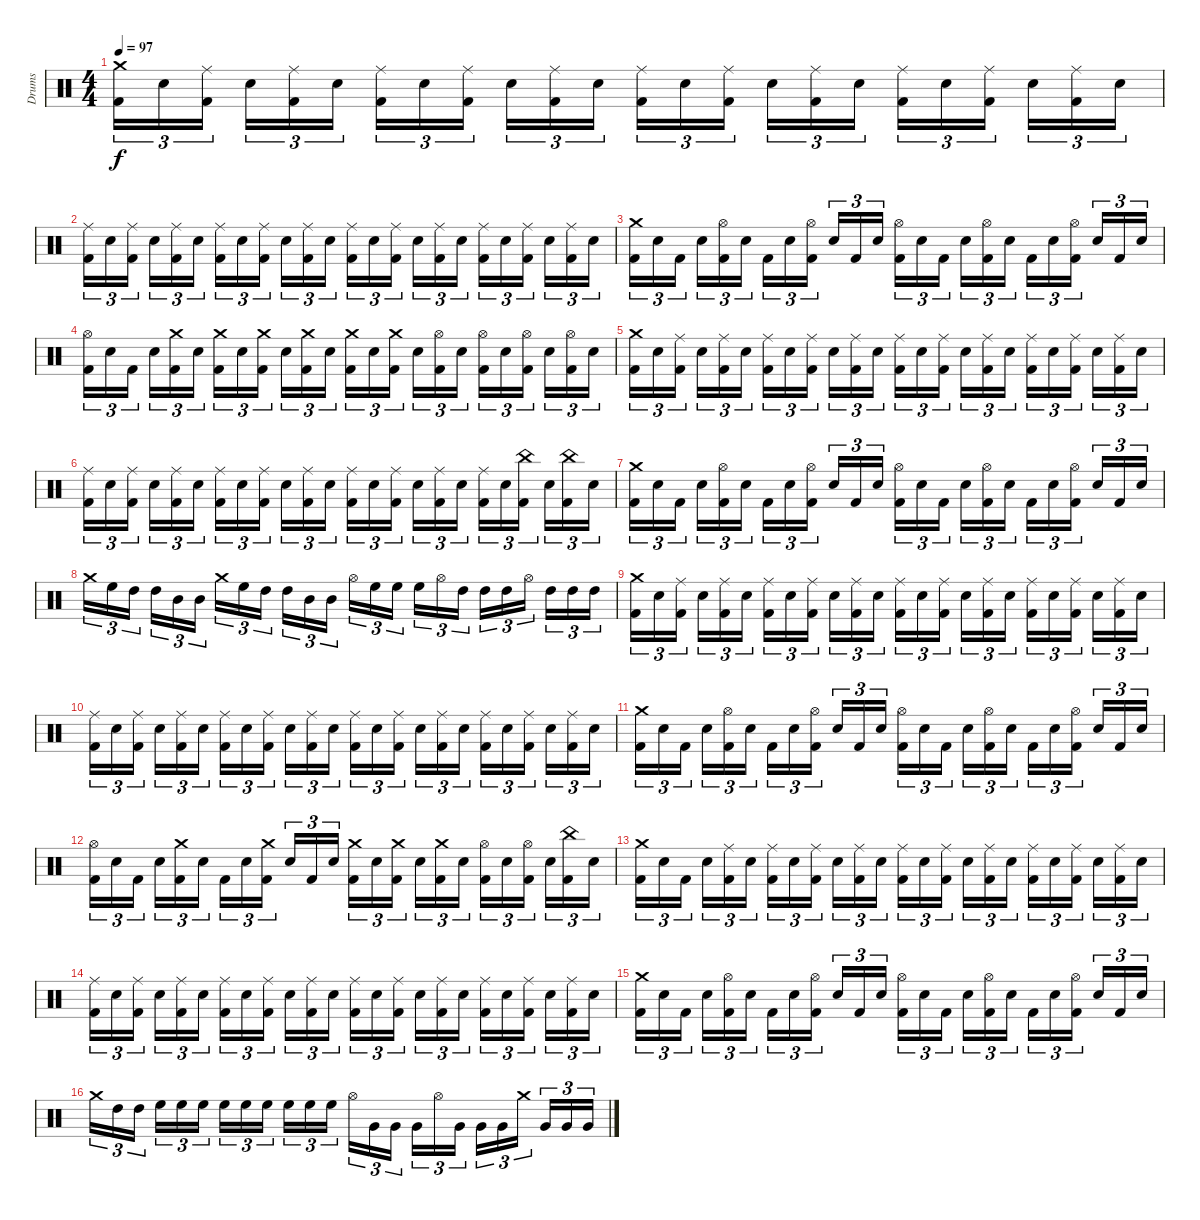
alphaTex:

\track ("Drums" "Drums") {instrument percussion}
\staff {score}
\articulation defaults
\ts (4 4)
\tempo 97
\clef neutral
\ks c
("Crash medium (hit)" "Kick (hit) 2").16{tu (3 2) dy f} "Snare (hit) 2".16{tu (3 2)} ("Ride (middle)" "Kick (hit) 2").16{tu (3 2)} "Snare (hit) 2".16{tu (3 2)} ("Ride (middle)" "Kick (hit) 2").16{tu (3 2)} "Snare (hit) 2".16{tu (3 2)} ("Ride (middle)" "Kick (hit) 2").16{tu (3 2)} "Snare (hit) 2".16{tu (3 2)} ("Ride (middle)" "Kick (hit) 2").16{tu (3 2)} "Snare (hit) 2".16{tu (3 2)} ("Ride (middle)" "Kick (hit) 2").16{tu (3 2)} "Snare (hit) 2".16{tu (3 2)} ("Ride (middle)" "Kick (hit) 2").16{tu (3 2)} "Snare (hit) 2".16{tu (3 2)} ("Ride (middle)" "Kick (hit) 2").16{tu (3 2)} "Snare (hit) 2".16{tu (3 2)} ("Ride (middle)" "Kick (hit) 2").16{tu (3 2)} "Snare (hit) 2".16{tu (3 2)} ("Ride (middle)" "Kick (hit) 2").16{tu (3 2)} "Snare (hit) 2".16{tu (3 2)} ("Ride (middle)" "Kick (hit) 2").16{tu (3 2)} "Snare (hit) 2".16{tu (3 2)} ("Ride (middle)" "Kick (hit) 2").16{tu (3 2)} "Snare (hit) 2".16{tu (3 2)} |
("Ride (middle)" "Kick (hit) 2").16{tu (3 2)} "Snare (hit) 2".16{tu (3 2)} ("Ride (middle)" "Kick (hit) 2").16{tu (3 2)} "Snare (hit) 2".16{tu (3 2)} ("Ride (middle)" "Kick (hit) 2").16{tu (3 2)} "Snare (hit) 2".16{tu (3 2)} ("Ride (middle)" "Kick (hit) 2").16{tu (3 2)} "Snare (hit) 2".16{tu (3 2)} ("Ride (middle)" "Kick (hit) 2").16{tu (3 2)} "Snare (hit) 2".16{tu (3 2)} ("Ride (middle)" "Kick (hit) 2").16{tu (3 2)} "Snare (hit) 2".16{tu (3 2)} ("Ride (middle)" "Kick (hit) 2").16{tu (3 2)} "Snare (hit) 2".16{tu (3 2)} ("Ride (middle)" "Kick (hit) 2").16{tu (3 2)} "Snare (hit) 2".16{tu (3 2)} ("Ride (middle)" "Kick (hit) 2").16{tu (3 2)} "Snare (hit) 2".16{tu (3 2)} ("Ride (middle)" "Kick (hit) 2").16{tu (3 2)} "Snare (hit) 2".16{tu (3 2)} ("Ride (middle)" "Kick (hit) 2").16{tu (3 2)} "Snare (hit) 2".16{tu (3 2)} ("Ride (middle)" "Kick (hit) 2").16{tu (3 2)} "Snare (hit) 2".16{tu (3 2)} |
("Crash medium (hit)" "Kick (hit) 2").16{tu (3 2)} "Snare (hit) 2".16{tu (3 2)} "Kick (hit) 2".16{tu (3 2)} "Snare (hit) 2".16{tu (3 2)} ("Hi-Hat (open)" "Kick (hit) 2").16{tu (3 2)} "Snare (hit) 2".16{tu (3 2)} "Kick (hit) 2".16{tu (3 2)} "Snare (hit) 2".16{tu (3 2)} ("Hi-Hat (open)" "Kick (hit) 2").16{tu (3 2)} "Snare (hit) 2".16{tu (3 2)} "Kick (hit) 2".16{tu (3 2)} "Snare (hit) 2".16{tu (3 2)} ("Hi-Hat (open)" "Kick (hit) 2").16{tu (3 2)} "Snare (hit) 2".16{tu (3 2)} "Kick (hit) 2".16{tu (3 2)} "Snare (hit) 2".16{tu (3 2)} ("Hi-Hat (open)" "Kick (hit) 2").16{tu (3 2)} "Snare (hit) 2".16{tu (3 2)} "Kick (hit) 2".16{tu (3 2)} "Snare (hit) 2".16{tu (3 2)} ("Hi-Hat (open)" "Kick (hit) 2").16{tu (3 2)} "Snare (hit) 2".16{tu (3 2)} "Kick (hit) 2".16{tu (3 2)} "Snare (hit) 2".16{tu (3 2)} |
("Hi-Hat (open)" "Kick (hit) 2").16{tu (3 2)} "Snare (hit) 2".16{tu (3 2)} "Kick (hit) 2".16{tu (3 2)} "Snare (hit) 2".16{tu (3 2)} ("Crash medium (hit)" "Kick (hit) 2").16{tu (3 2)} "Snare (hit) 2".16{tu (3 2)} ("Crash medium (hit)" "Kick (hit) 2").16{tu (3 2)} "Snare (hit) 2".16{tu (3 2)} ("Crash medium (hit)" "Kick (hit) 2").16{tu (3 2)} "Snare (hit) 2".16{tu (3 2)} ("Crash medium (hit)" "Kick (hit) 2").16{tu (3 2)} "Snare (hit) 2".16{tu (3 2)} ("Crash medium (hit)" "Kick (hit) 2").16{tu (3 2)} "Snare (hit) 2".16{tu (3 2)} ("Crash medium (hit)" "Kick (hit) 2").16{tu (3 2)} "Snare (hit) 2".16{tu (3 2)} ("Hi-Hat (open)" "Kick (hit) 2").16{tu (3 2)} "Snare (hit) 2".16{tu (3 2)} ("Hi-Hat (open)" "Kick (hit) 2").16{tu (3 2)} "Snare (hit) 2".16{tu (3 2)} ("Hi-Hat (open)" "Kick (hit) 2").16{tu (3 2)} "Snare (hit) 2".16{tu (3 2)} ("Hi-Hat (open)" "Kick (hit) 2").16{tu (3 2)} "Snare (hit) 2".16{tu (3 2)} |
("Crash medium (hit)" "Kick (hit) 2").16{tu (3 2)} "Snare (hit) 2".16{tu (3 2)} ("Ride (middle)" "Kick (hit) 2").16{tu (3 2)} "Snare (hit) 2".16{tu (3 2)} ("Ride (middle)" "Kick (hit) 2").16{tu (3 2)} "Snare (hit) 2".16{tu (3 2)} ("Ride (middle)" "Kick (hit) 2").16{tu (3 2)} "Snare (hit) 2".16{tu (3 2)} ("Ride (middle)" "Kick (hit) 2").16{tu (3 2)} "Snare (hit) 2".16{tu (3 2)} ("Ride (middle)" "Kick (hit) 2").16{tu (3 2)} "Snare (hit) 2".16{tu (3 2)} ("Ride (middle)" "Kick (hit) 2").16{tu (3 2)} "Snare (hit) 2".16{tu (3 2)} ("Ride (middle)" "Kick (hit) 2").16{tu (3 2)} "Snare (hit) 2".16{tu (3 2)} ("Ride (middle)" "Kick (hit) 2").16{tu (3 2)} "Snare (hit) 2".16{tu (3 2)} ("Ride (middle)" "Kick (hit) 2").16{tu (3 2)} "Snare (hit) 2".16{tu (3 2)} ("Ride (middle)" "Kick (hit) 2").16{tu (3 2)} "Snare (hit) 2".16{tu (3 2)} ("Ride (middle)" "Kick (hit) 2").16{tu (3 2)} "Snare (hit) 2".16{tu (3 2)} |
("Ride (middle)" "Kick (hit) 2").16{tu (3 2)} "Snare (hit) 2".16{tu (3 2)} ("Ride (middle)" "Kick (hit) 2").16{tu (3 2)} "Snare (hit) 2".16{tu (3 2)} ("Ride (middle)" "Kick (hit) 2").16{tu (3 2)} "Snare (hit) 2".16{tu (3 2)} ("Ride (middle)" "Kick (hit) 2").16{tu (3 2)} "Snare (hit) 2".16{tu (3 2)} ("Ride (middle)" "Kick (hit) 2").16{tu (3 2)} "Snare (hit) 2".16{tu (3 2)} ("Ride (middle)" "Kick (hit) 2").16{tu (3 2)} "Snare (hit) 2".16{tu (3 2)} ("Ride (middle)" "Kick (hit) 2").16{tu (3 2)} "Snare (hit) 2".16{tu (3 2)} ("Ride (middle)" "Kick (hit) 2").16{tu (3 2)} "Snare (hit) 2".16{tu (3 2)} ("Ride (middle)" "Kick (hit) 2").16{tu (3 2)} "Snare (hit) 2".16{tu (3 2)} ("Ride (middle)" "Kick (hit) 2").16{tu (3 2)} "Snare (hit) 2".16{tu (3 2)} ("China (hit)" "Kick (hit) 2").16{tu (3 2)} "Snare (hit) 2".16{tu (3 2)} ("China (hit)" "Kick (hit) 2").16{tu (3 2)} "Snare (hit) 2".16{tu (3 2)} |
("Crash medium (hit)" "Kick (hit) 2").16{tu (3 2)} "Snare (hit) 2".16{tu (3 2)} "Kick (hit) 2".16{tu (3 2)} "Snare (hit) 2".16{tu (3 2)} ("Hi-Hat (open)" "Kick (hit) 2").16{tu (3 2)} "Snare (hit) 2".16{tu (3 2)} "Kick (hit) 2".16{tu (3 2)} "Snare (hit) 2".16{tu (3 2)} ("Hi-Hat (open)" "Kick (hit) 2").16{tu (3 2)} "Snare (hit) 2".16{tu (3 2)} "Kick (hit) 2".16{tu (3 2)} "Snare (hit) 2".16{tu (3 2)} ("Hi-Hat (open)" "Kick (hit) 2").16{tu (3 2)} "Snare (hit) 2".16{tu (3 2)} "Kick (hit) 2".16{tu (3 2)} "Snare (hit) 2".16{tu (3 2)} ("Hi-Hat (open)" "Kick (hit) 2").16{tu (3 2)} "Snare (hit) 2".16{tu (3 2)} "Kick (hit) 2".16{tu (3 2)} "Snare (hit) 2".16{tu (3 2)} ("Hi-Hat (open)" "Kick (hit) 2").16{tu (3 2)} "Snare (hit) 2".16{tu (3 2)} "Kick (hit) 2".16{tu (3 2)} "Snare (hit) 2".16{tu (3 2)} |
"Crash medium (hit)".16{tu (3 2)} "High Floor Tom (hit)".16{tu (3 2)} "High Tom (hit)".16{tu (3 2)} "High Tom (hit)".16{tu (3 2)} "Mid Tom (hit)".16{tu (3 2)} "Mid Tom (hit)".16{tu (3 2)} "Crash medium (hit)".16{tu (3 2)} "High Floor Tom (hit)".16{tu (3 2)} "High Tom (hit)".16{tu (3 2)} "High Tom (hit)".16{tu (3 2)} "Mid Tom (hit)".16{tu (3 2)} "Mid Tom (hit)".16{tu (3 2)} "Hi-Hat (open)".16{tu (3 2)} "High Floor Tom (hit)".16{tu (3 2)} "High Floor Tom (hit)".16{tu (3 2)} "High Floor Tom (hit)".16{tu (3 2)} "Hi-Hat (open)".16{tu (3 2)} "High Tom (hit)".16{tu (3 2)} "High Tom (hit)".16{tu (3 2)} "High Tom (hit)".16{tu (3 2)} "Hi-Hat (open)".16{tu (3 2)} "High Tom (hit)".16{tu (3 2)} "High Tom (hit)".16{tu (3 2)} "High Tom (hit)".16{tu (3 2)} |
("Crash medium (hit)" "Kick (hit) 2").16{tu (3 2)} "Snare (hit) 2".16{tu (3 2)} ("Ride (middle)" "Kick (hit) 2").16{tu (3 2)} "Snare (hit) 2".16{tu (3 2)} ("Ride (middle)" "Kick (hit) 2").16{tu (3 2)} "Snare (hit) 2".16{tu (3 2)} ("Ride (middle)" "Kick (hit) 2").16{tu (3 2)} "Snare (hit) 2".16{tu (3 2)} ("Ride (middle)" "Kick (hit) 2").16{tu (3 2)} "Snare (hit) 2".16{tu (3 2)} ("Ride (middle)" "Kick (hit) 2").16{tu (3 2)} "Snare (hit) 2".16{tu (3 2)} ("Ride (middle)" "Kick (hit) 2").16{tu (3 2)} "Snare (hit) 2".16{tu (3 2)} ("Ride (middle)" "Kick (hit) 2").16{tu (3 2)} "Snare (hit) 2".16{tu (3 2)} ("Ride (middle)" "Kick (hit) 2").16{tu (3 2)} "Snare (hit) 2".16{tu (3 2)} ("Ride (middle)" "Kick (hit) 2").16{tu (3 2)} "Snare (hit) 2".16{tu (3 2)} ("Ride (middle)" "Kick (hit) 2").16{tu (3 2)} "Snare (hit) 2".16{tu (3 2)} ("Ride (middle)" "Kick (hit) 2").16{tu (3 2)} "Snare (hit) 2".16{tu (3 2)} |
("Ride (middle)" "Kick (hit) 2").16{tu (3 2)} "Snare (hit) 2".16{tu (3 2)} ("Ride (middle)" "Kick (hit) 2").16{tu (3 2)} "Snare (hit) 2".16{tu (3 2)} ("Ride (middle)" "Kick (hit) 2").16{tu (3 2)} "Snare (hit) 2".16{tu (3 2)} ("Ride (middle)" "Kick (hit) 2").16{tu (3 2)} "Snare (hit) 2".16{tu (3 2)} ("Ride (middle)" "Kick (hit) 2").16{tu (3 2)} "Snare (hit) 2".16{tu (3 2)} ("Ride (middle)" "Kick (hit) 2").16{tu (3 2)} "Snare (hit) 2".16{tu (3 2)} ("Ride (middle)" "Kick (hit) 2").16{tu (3 2)} "Snare (hit) 2".16{tu (3 2)} ("Ride (middle)" "Kick (hit) 2").16{tu (3 2)} "Snare (hit) 2".16{tu (3 2)} ("Ride (middle)" "Kick (hit) 2").16{tu (3 2)} "Snare (hit) 2".16{tu (3 2)} ("Ride (middle)" "Kick (hit) 2").16{tu (3 2)} "Snare (hit) 2".16{tu (3 2)} ("Ride (middle)" "Kick (hit) 2").16{tu (3 2)} "Snare (hit) 2".16{tu (3 2)} ("Ride (middle)" "Kick (hit) 2").16{tu (3 2)} "Snare (hit) 2".16{tu (3 2)} |
("Crash medium (hit)" "Kick (hit) 2").16{tu (3 2)} "Snare (hit) 2".16{tu (3 2)} "Kick (hit) 2".16{tu (3 2)} "Snare (hit) 2".16{tu (3 2)} ("Hi-Hat (open)" "Kick (hit) 2").16{tu (3 2)} "Snare (hit) 2".16{tu (3 2)} "Kick (hit) 2".16{tu (3 2)} "Snare (hit) 2".16{tu (3 2)} ("Hi-Hat (open)" "Kick (hit) 2").16{tu (3 2)} "Snare (hit) 2".16{tu (3 2)} "Kick (hit) 2".16{tu (3 2)} "Snare (hit) 2".16{tu (3 2)} ("Hi-Hat (open)" "Kick (hit) 2").16{tu (3 2)} "Snare (hit) 2".16{tu (3 2)} "Kick (hit) 2".16{tu (3 2)} "Snare (hit) 2".16{tu (3 2)} ("Hi-Hat (open)" "Kick (hit) 2").16{tu (3 2)} "Snare (hit) 2".16{tu (3 2)} "Kick (hit) 2".16{tu (3 2)} "Snare (hit) 2".16{tu (3 2)} ("Hi-Hat (open)" "Kick (hit) 2").16{tu (3 2)} "Snare (hit) 2".16{tu (3 2)} "Kick (hit) 2".16{tu (3 2)} "Snare (hit) 2".16{tu (3 2)} |
("Hi-Hat (open)" "Kick (hit) 2").16{tu (3 2)} "Snare (hit) 2".16{tu (3 2)} "Kick (hit) 2".16{tu (3 2)} "Snare (hit) 2".16{tu (3 2)} ("Crash medium (hit)" "Kick (hit) 2").16{tu (3 2)} "Snare (hit) 2".16{tu (3 2)} "Kick (hit) 2".16{tu (3 2)} "Snare (hit) 2".16{tu (3 2)} ("Crash medium (hit)" "Kick (hit) 2").16{tu (3 2)} "Snare (hit) 2".16{tu (3 2)} "Kick (hit) 2".16{tu (3 2)} "Snare (hit) 2".16{tu (3 2)} ("Crash medium (hit)" "Kick (hit) 2").16{tu (3 2)} "Snare (hit) 2".16{tu (3 2)} ("Crash medium (hit)" "Kick (hit) 2").16{tu (3 2)} "Snare (hit) 2".16{tu (3 2)} ("Crash medium (hit)" "Kick (hit) 2").16{tu (3 2)} "Snare (hit) 2".16{tu (3 2)} ("Hi-Hat (open)" "Kick (hit) 2").16{tu (3 2)} "Snare (hit) 2".16{tu (3 2)} ("Hi-Hat (open)" "Kick (hit) 2").16{tu (3 2)} "Snare (hit) 2".16{tu (3 2)} ("China (hit)" "Kick (hit) 2").16{tu (3 2)} "Snare (hit) 2".16{tu (3 2)} |
("Crash medium (hit)" "Kick (hit) 2").16{tu (3 2)} "Snare (hit) 2".16{tu (3 2)} "Kick (hit) 2".16{tu (3 2)} "Snare (hit) 2".16{tu (3 2)} ("Ride (middle)" "Kick (hit) 2").16{tu (3 2)} "Snare (hit) 2".16{tu (3 2)} ("Ride (middle)" "Kick (hit) 2").16{tu (3 2)} "Snare (hit) 2".16{tu (3 2)} ("Ride (middle)" "Kick (hit) 2").16{tu (3 2)} "Snare (hit) 2".16{tu (3 2)} ("Ride (middle)" "Kick (hit) 2").16{tu (3 2)} "Snare (hit) 2".16{tu (3 2)} ("Ride (middle)" "Kick (hit) 2").16{tu (3 2)} "Snare (hit) 2".16{tu (3 2)} ("Ride (middle)" "Kick (hit) 2").16{tu (3 2)} "Snare (hit) 2".16{tu (3 2)} ("Ride (middle)" "Kick (hit) 2").16{tu (3 2)} "Snare (hit) 2".16{tu (3 2)} ("Ride (middle)" "Kick (hit) 2").16{tu (3 2)} "Snare (hit) 2".16{tu (3 2)} ("Ride (middle)" "Kick (hit) 2").16{tu (3 2)} "Snare (hit) 2".16{tu (3 2)} ("Ride (middle)" "Kick (hit) 2").16{tu (3 2)} "Snare (hit) 2".16{tu (3 2)} |
("Ride (middle)" "Kick (hit) 2").16{tu (3 2)} "Snare (hit) 2".16{tu (3 2)} ("Ride (middle)" "Kick (hit) 2").16{tu (3 2)} "Snare (hit) 2".16{tu (3 2)} ("Ride (middle)" "Kick (hit) 2").16{tu (3 2)} "Snare (hit) 2".16{tu (3 2)} ("Ride (middle)" "Kick (hit) 2").16{tu (3 2)} "Snare (hit) 2".16{tu (3 2)} ("Ride (middle)" "Kick (hit) 2").16{tu (3 2)} "Snare (hit) 2".16{tu (3 2)} ("Ride (middle)" "Kick (hit) 2").16{tu (3 2)} "Snare (hit) 2".16{tu (3 2)} ("Ride (middle)" "Kick (hit) 2").16{tu (3 2)} "Snare (hit) 2".16{tu (3 2)} ("Ride (middle)" "Kick (hit) 2").16{tu (3 2)} "Snare (hit) 2".16{tu (3 2)} ("Ride (middle)" "Kick (hit) 2").16{tu (3 2)} "Snare (hit) 2".16{tu (3 2)} ("Ride (middle)" "Kick (hit) 2").16{tu (3 2)} "Snare (hit) 2".16{tu (3 2)} ("Ride (middle)" "Kick (hit) 2").16{tu (3 2)} "Snare (hit) 2".16{tu (3 2)} ("Ride (middle)" "Kick (hit) 2").16{tu (3 2)} "Snare (hit) 2".16{tu (3 2)} |
("Crash medium (hit)" "Kick (hit) 2").16{tu (3 2)} "Snare (hit) 2".16{tu (3 2)} "Kick (hit) 2".16{tu (3 2)} "Snare (hit) 2".16{tu (3 2)} ("Hi-Hat (open)" "Kick (hit) 2").16{tu (3 2)} "Snare (hit) 2".16{tu (3 2)} "Kick (hit) 2".16{tu (3 2)} "Snare (hit) 2".16{tu (3 2)} ("Hi-Hat (open)" "Kick (hit) 2").16{tu (3 2)} "Snare (hit) 2".16{tu (3 2)} "Kick (hit) 2".16{tu (3 2)} "Snare (hit) 2".16{tu (3 2)} ("Hi-Hat (open)" "Kick (hit) 2").16{tu (3 2)} "Snare (hit) 2".16{tu (3 2)} "Kick (hit) 2".16{tu (3 2)} "Snare (hit) 2".16{tu (3 2)} ("Hi-Hat (open)" "Kick (hit) 2").16{tu (3 2)} "Snare (hit) 2".16{tu (3 2)} "Kick (hit) 2".16{tu (3 2)} "Snare (hit) 2".16{tu (3 2)} ("Hi-Hat (open)" "Kick (hit) 2").16{tu (3 2)} "Snare (hit) 2".16{tu (3 2)} "Kick (hit) 2".16{tu (3 2)} "Snare (hit) 2".16{tu (3 2)} |
"Crash medium (hit)".16{tu (3 2)} "High Tom (hit)".16{tu (3 2)} "High Tom (hit)".16{tu (3 2)} "High Floor Tom (hit)".16{tu (3 2)} "High Floor Tom (hit)".16{tu (3 2)} "High Floor Tom (hit)".16{tu (3 2)} "High Floor Tom (hit)".16{tu (3 2)} "High Floor Tom (hit)".16{tu (3 2)} "High Floor Tom (hit)".16{tu (3 2)} "High Floor Tom (hit)".16{tu (3 2)} "High Floor Tom (hit)".16{tu (3 2)} "High Floor Tom (hit)".16{tu (3 2)} "Hi-Hat (open)".16{tu (3 2)} "Very Low Tom (hit)".16{tu (3 2)} "Very Low Tom (hit)".16{tu (3 2)} "Very Low Tom (hit)".16{tu (3 2)} "Hi-Hat (open)".16{tu (3 2)} "Very Low Tom (hit)".16{tu (3 2)} "Very Low Tom (hit)".16{tu (3 2)} "Very Low Tom (hit)".16{tu (3 2)} "Crash medium (hit)".16{tu (3 2)} "Very Low Tom (hit)".16{tu (3 2)} "Very Low Tom (hit)".16{tu (3 2)} "Very Low Tom (hit)".16{tu (3 2)}
